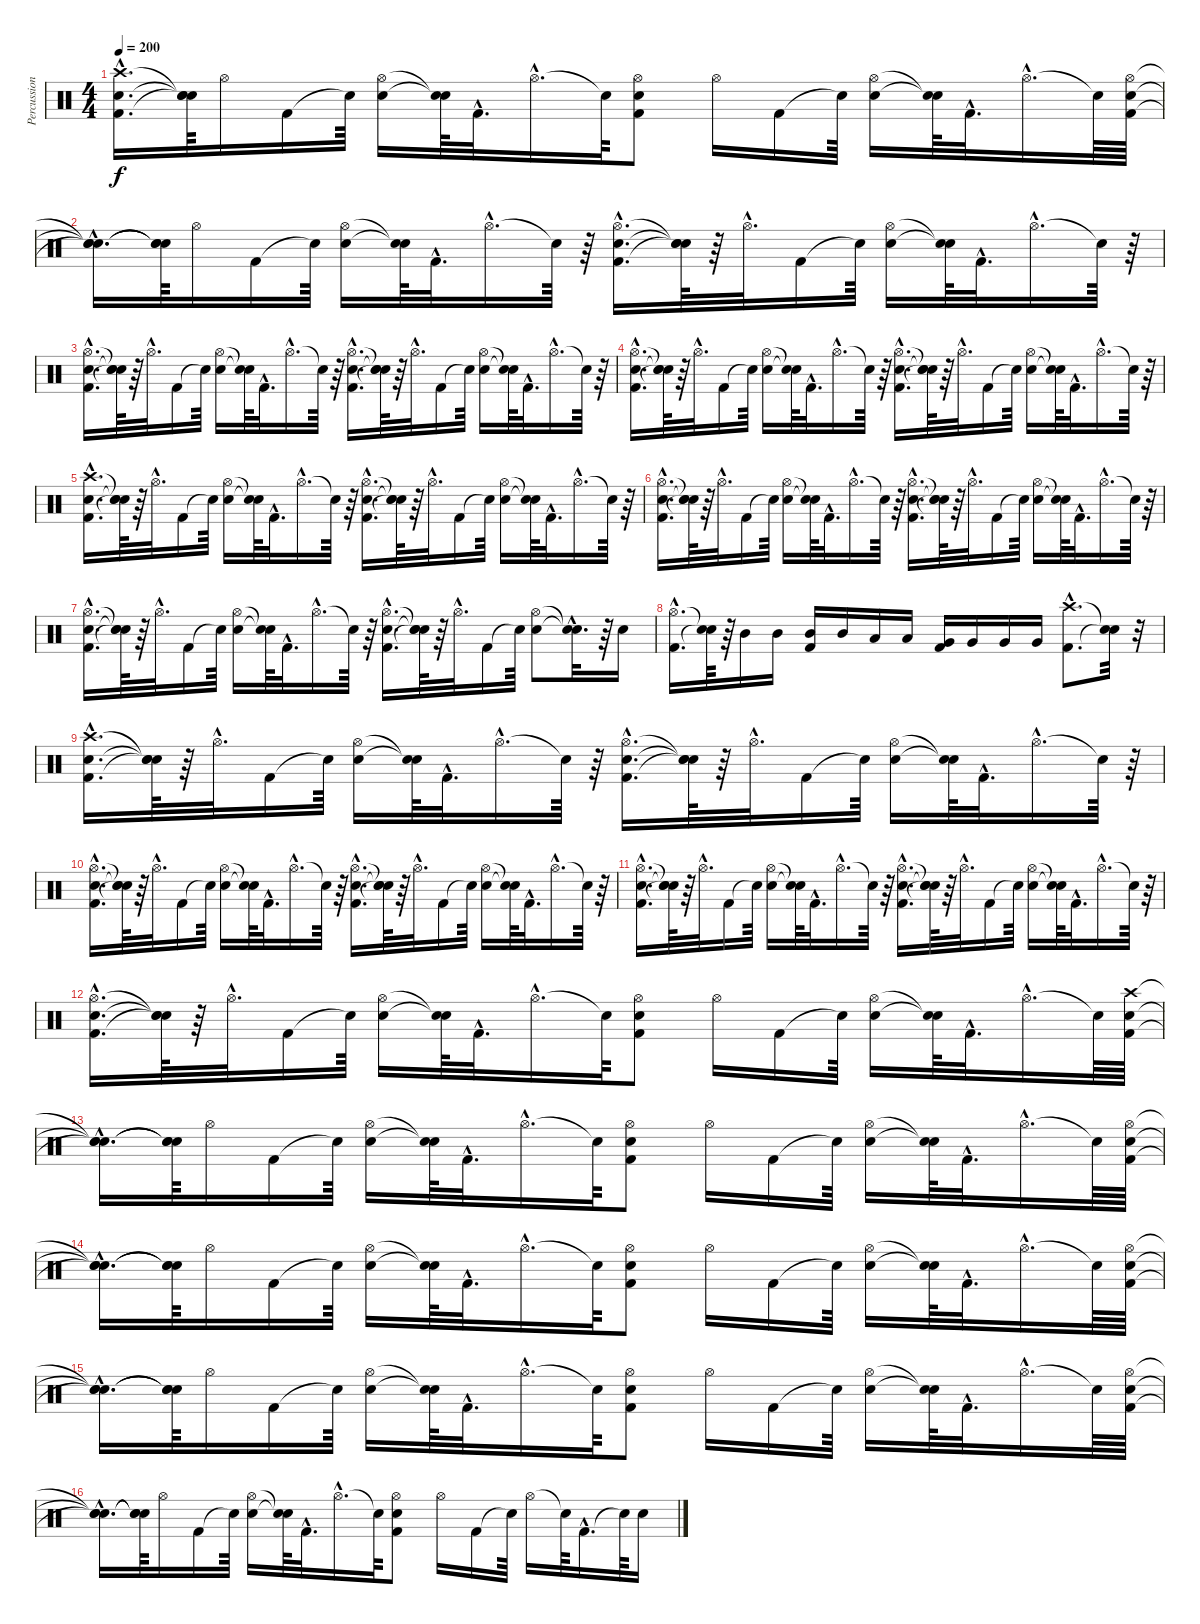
\track ("Percussion" "Percussion") {instrument percussion}
\staff {score}
\articulation defaults
\ts (4 4)
\tempo 200
\clef neutral
\ks c
("Electric Snare (hit)"{hac} "Crash high (hit)"{hac} "Kick (hit) 2"{hac}).16{d dy f volume 4} ("Snare (hit)"{t} "Snare (hit)"{t} "Snare (hit)"{t}).64 "Hi-Hat (open)".16 "Kick (hit) 2".16 "Snare (hit)"{t}.64 ("Electric Snare (hit)" "Hi-Hat (open)").16 ("Snare (hit)"{t} "Snare (hit)"{t}).64 "Kick (hit) 2"{hac}.32{d} "Hi-Hat (open)"{hac}.16{d} "Snare (hit)"{t}.64 ("Electric Snare (hit)" "Hi-Hat (open)" "Kick (hit) 2").8 "Hi-Hat (open)".16 "Kick (hit) 2".16 "Snare (hit)"{t}.64 ("Electric Snare (hit)" "Hi-Hat (open)").16 ("Snare (hit)"{t} "Snare (hit)"{t}).64 "Kick (hit) 2"{hac}.32{d} "Hi-Hat (open)"{hac}.16{d} "Snare (hit)"{t}.64 ("Electric Snare (hit)" "Hi-Hat (open)" "Kick (hit) 2").64 |
("Snare (hit)"{hac t} "Snare (hit)"{hac t} "Snare (hit)"{hac t}).16{d} ("Snare (hit)"{t} "Snare (hit)"{t} "Snare (hit)"{t}).64 "Hi-Hat (open)".16 "Kick (hit) 2".16 "Snare (hit)"{t}.64 ("Electric Snare (hit)" "Hi-Hat (open)").16 ("Snare (hit)"{t} "Snare (hit)"{t}).64 "Kick (hit) 2"{hac}.32{d} "Hi-Hat (open)"{hac}.16{d} "Snare (hit)"{t}.64 r.64 ("Electric Snare (hit)"{hac} "Hi-Hat (open)"{hac} "Kick (hit) 2"{hac}).16{d} ("Snare (hit)"{t} "Snare (hit)"{t} "Snare (hit)"{t}).64 r.64 "Hi-Hat (open)"{hac}.32{d} "Kick (hit) 2".16 "Snare (hit)"{t}.64 ("Electric Snare (hit)" "Hi-Hat (open)").16 ("Snare (hit)"{t} "Snare (hit)"{t}).64 "Kick (hit) 2"{hac}.32{d} "Hi-Hat (open)"{hac}.16{d} "Snare (hit)"{t}.64 r.64 |
("Electric Snare (hit)"{hac} "Hi-Hat (open)"{hac} "Kick (hit) 2"{hac}).16{d volume 8} ("Snare (hit)"{t} "Snare (hit)"{t} "Snare (hit)"{t}).64 r.64 "Hi-Hat (open)"{hac}.32{d} "Kick (hit) 2".16 "Snare (hit)"{t}.64 ("Electric Snare (hit)" "Hi-Hat (open)").16 ("Snare (hit)"{t} "Snare (hit)"{t}).64 "Kick (hit) 2"{hac}.32{d} "Hi-Hat (open)"{hac}.16{d} "Snare (hit)"{t}.64 r.64 ("Electric Snare (hit)"{hac} "Hi-Hat (open)"{hac} "Kick (hit) 2"{hac}).16{d} ("Snare (hit)"{t} "Snare (hit)"{t} "Snare (hit)"{t}).64 r.64 "Hi-Hat (open)"{hac}.32{d} "Kick (hit) 2".16 "Snare (hit)"{t}.64 ("Electric Snare (hit)" "Hi-Hat (open)").16 ("Snare (hit)"{t} "Snare (hit)"{t}).64 "Kick (hit) 2"{hac}.32{d} "Hi-Hat (open)"{hac}.16{d} "Snare (hit)"{t}.64 r.64 |
("Electric Snare (hit)"{hac} "Hi-Hat (open)"{hac} "Kick (hit) 2"{hac}).16{d} ("Snare (hit)"{t} "Snare (hit)"{t} "Snare (hit)"{t}).64 r.64 "Hi-Hat (open)"{hac}.32{d} "Kick (hit) 2".16 "Snare (hit)"{t}.64 ("Electric Snare (hit)" "Hi-Hat (open)").16 ("Snare (hit)"{t} "Snare (hit)"{t}).64 "Kick (hit) 2"{hac}.32{d} "Hi-Hat (open)"{hac}.16{d} "Snare (hit)"{t}.64 r.64 ("Electric Snare (hit)"{hac} "Hi-Hat (open)"{hac} "Kick (hit) 2"{hac}).16{d} ("Snare (hit)"{t} "Snare (hit)"{t} "Snare (hit)"{t}).64 r.64 "Hi-Hat (open)"{hac}.32{d} "Kick (hit) 2".16 "Snare (hit)"{t}.64 ("Electric Snare (hit)" "Hi-Hat (open)").16 ("Snare (hit)"{t} "Snare (hit)"{t}).64 "Kick (hit) 2"{hac}.32{d} "Hi-Hat (open)"{hac}.16{d} "Snare (hit)"{t}.64 r.64 |
("Electric Snare (hit)"{hac} "Crash high (hit)"{hac} "Kick (hit) 2"{hac}).16{d volume 12} ("Snare (hit)"{t} "Snare (hit)"{t} "Snare (hit)"{t}).64 r.64 "Hi-Hat (open)"{hac}.32{d} "Kick (hit) 2".16 "Snare (hit)"{t}.64 ("Electric Snare (hit)" "Hi-Hat (open)").16 ("Snare (hit)"{t} "Snare (hit)"{t}).64 "Kick (hit) 2"{hac}.32{d} "Hi-Hat (open)"{hac}.16{d} "Snare (hit)"{t}.64 r.64 ("Electric Snare (hit)"{hac} "Hi-Hat (open)"{hac} "Kick (hit) 2"{hac}).16{d} ("Snare (hit)"{t} "Snare (hit)"{t} "Snare (hit)"{t}).64 r.64 "Hi-Hat (open)"{hac}.32{d} "Kick (hit) 2".16 "Snare (hit)"{t}.64 ("Electric Snare (hit)" "Hi-Hat (open)").16 ("Snare (hit)"{t} "Snare (hit)"{t}).64 "Kick (hit) 2"{hac}.32{d} "Hi-Hat (open)"{hac}.16{d} "Snare (hit)"{t}.64 r.64 |
("Electric Snare (hit)"{hac} "Hi-Hat (open)"{hac} "Kick (hit) 2"{hac}).16{d} ("Snare (hit)"{t} "Snare (hit)"{t} "Snare (hit)"{t}).64 r.64 "Hi-Hat (open)"{hac}.32{d} "Kick (hit) 2".16 "Snare (hit)"{t}.64 ("Electric Snare (hit)" "Hi-Hat (open)").16 ("Snare (hit)"{t} "Snare (hit)"{t}).64 "Kick (hit) 2"{hac}.32{d} "Hi-Hat (open)"{hac}.16{d} "Snare (hit)"{t}.64 r.64 ("Electric Snare (hit)"{hac} "Hi-Hat (open)"{hac} "Kick (hit) 2"{hac}).16{d} ("Snare (hit)"{t} "Snare (hit)"{t} "Snare (hit)"{t}).64 r.64 "Hi-Hat (open)"{hac}.32{d} "Kick (hit) 2".16 "Snare (hit)"{t}.64 ("Electric Snare (hit)" "Hi-Hat (open)").16 ("Snare (hit)"{t} "Snare (hit)"{t}).64 "Kick (hit) 2"{hac}.32{d} "Hi-Hat (open)"{hac}.16{d} "Snare (hit)"{t}.64 r.64 |
("Electric Snare (hit)"{hac} "Hi-Hat (open)"{hac} "Kick (hit) 2"{hac}).16{d} ("Snare (hit)"{t} "Snare (hit)"{t} "Snare (hit)"{t}).64 r.64 "Hi-Hat (open)"{hac}.32{d} "Kick (hit) 2".16 "Snare (hit)"{t}.64 ("Electric Snare (hit)" "Hi-Hat (open)").16 ("Snare (hit)"{t} "Snare (hit)"{t}).64 "Kick (hit) 2"{hac}.32{d} "Hi-Hat (open)"{hac}.16{d} "Snare (hit)"{t}.64 r.64 ("Electric Snare (hit)"{hac} "Hi-Hat (open)"{hac} "Kick (hit) 2"{hac}).16{d} ("Snare (hit)"{t} "Snare (hit)"{t} "Snare (hit)"{t}).64 r.64 "Hi-Hat (open)"{hac}.32{d} "Kick (hit) 2".16 "Snare (hit)"{t}.64 ("Electric Snare (hit)" "Hi-Hat (open)").8 ("Snare (hit)"{hac t} "Snare (hit)"{hac t}).32{d} r.64 "Electric Snare (hit)".16 |
("Kick (hit) 2"{hac} "Hi-Hat (open)"{hac}).16{d} ("Snare (hit)"{t} "Snare (hit)"{t}).64 r.64 "Mid Tom (hit)".16 "Mid Tom (hit)".16 ("Kick (hit) 2" "Mid Tom (hit)").16 "Mid Tom (hit)".16 "Low Tom (hit)".16 "Low Tom (hit)".16 ("Kick (hit) 2" "Very Low Tom (hit)").16 "Very Low Tom (hit)".16 "Very Low Tom (hit)".16 "Very Low Tom (hit)".16 ("Kick (hit) 2"{hac} "Crash high (hit)"{hac}).8{d} ("Snare (hit)"{t} "Snare (hit)"{t}).32 r.32 |
("Electric Snare (hit)"{hac} "Crash high (hit)"{hac} "Kick (hit) 2"{hac}).16{d} ("Snare (hit)"{t} "Snare (hit)"{t} "Snare (hit)"{t}).64 r.64 "Hi-Hat (open)"{hac}.32{d} "Kick (hit) 2".16 "Snare (hit)"{t}.64 ("Electric Snare (hit)" "Hi-Hat (open)").16 ("Snare (hit)"{t} "Snare (hit)"{t}).64 "Kick (hit) 2"{hac}.32{d} "Hi-Hat (open)"{hac}.16{d} "Snare (hit)"{t}.64 r.64 ("Electric Snare (hit)"{hac} "Hi-Hat (open)"{hac} "Kick (hit) 2"{hac}).16{d} ("Snare (hit)"{t} "Snare (hit)"{t} "Snare (hit)"{t}).64 r.64 "Hi-Hat (open)"{hac}.32{d} "Kick (hit) 2".16 "Snare (hit)"{t}.64 ("Electric Snare (hit)" "Hi-Hat (open)").16 ("Snare (hit)"{t} "Snare (hit)"{t}).64 "Kick (hit) 2"{hac}.32{d} "Hi-Hat (open)"{hac}.16{d} "Snare (hit)"{t}.64 r.64 |
("Electric Snare (hit)"{hac} "Hi-Hat (open)"{hac} "Kick (hit) 2"{hac}).16{d} ("Snare (hit)"{t} "Snare (hit)"{t} "Snare (hit)"{t}).64 r.64 "Hi-Hat (open)"{hac}.32{d} "Kick (hit) 2".16 "Snare (hit)"{t}.64 ("Electric Snare (hit)" "Hi-Hat (open)").16 ("Snare (hit)"{t} "Snare (hit)"{t}).64 "Kick (hit) 2"{hac}.32{d} "Hi-Hat (open)"{hac}.16{d} "Snare (hit)"{t}.64 r.64 ("Electric Snare (hit)"{hac} "Hi-Hat (open)"{hac} "Kick (hit) 2"{hac}).16{d} ("Snare (hit)"{t} "Snare (hit)"{t} "Snare (hit)"{t}).64 r.64 "Hi-Hat (open)"{hac}.32{d} "Kick (hit) 2".16 "Snare (hit)"{t}.64 ("Electric Snare (hit)" "Hi-Hat (open)").16 ("Snare (hit)"{t} "Snare (hit)"{t}).64 "Kick (hit) 2"{hac}.32{d} "Hi-Hat (open)"{hac}.16{d} "Snare (hit)"{t}.64 r.64 |
("Electric Snare (hit)"{hac} "Hi-Hat (open)"{hac} "Kick (hit) 2"{hac}).16{d} ("Snare (hit)"{t} "Snare (hit)"{t} "Snare (hit)"{t}).64 r.64 "Hi-Hat (open)"{hac}.32{d} "Kick (hit) 2".16 "Snare (hit)"{t}.64 ("Electric Snare (hit)" "Hi-Hat (open)").16 ("Snare (hit)"{t} "Snare (hit)"{t}).64 "Kick (hit) 2"{hac}.32{d} "Hi-Hat (open)"{hac}.16{d} "Snare (hit)"{t}.64 r.64 ("Electric Snare (hit)"{hac} "Hi-Hat (open)"{hac} "Kick (hit) 2"{hac}).16{d} ("Snare (hit)"{t} "Snare (hit)"{t} "Snare (hit)"{t}).64 r.64 "Hi-Hat (open)"{hac}.32{d} "Kick (hit) 2".16 "Snare (hit)"{t}.64 ("Electric Snare (hit)" "Hi-Hat (open)").16 ("Snare (hit)"{t} "Snare (hit)"{t}).64 "Kick (hit) 2"{hac}.32{d} "Hi-Hat (open)"{hac}.16{d} "Snare (hit)"{t}.64 r.64 |
("Electric Snare (hit)"{hac} "Hi-Hat (open)"{hac} "Kick (hit) 2"{hac}).16{d} ("Snare (hit)"{t} "Snare (hit)"{t} "Snare (hit)"{t}).64 r.64 "Hi-Hat (open)"{hac}.32{d} "Kick (hit) 2".16 "Snare (hit)"{t}.64 ("Electric Snare (hit)" "Hi-Hat (open)").16 ("Snare (hit)"{t} "Snare (hit)"{t}).64 "Kick (hit) 2"{hac}.32{d} "Hi-Hat (open)"{hac}.16{d} "Snare (hit)"{t}.64 ("Electric Snare (hit)" "Hi-Hat (open)" "Kick (hit) 2").8 "Hi-Hat (open)".16 "Kick (hit) 2".16 "Snare (hit)"{t}.64 ("Electric Snare (hit)" "Hi-Hat (open)").16 ("Snare (hit)"{t} "Snare (hit)"{t}).64 "Kick (hit) 2"{hac}.32{d} "Hi-Hat (open)"{hac}.16{d} "Snare (hit)"{t}.64 ("Electric Snare (hit)" "Crash high (hit)" "Kick (hit) 2").64 |
("Snare (hit)"{hac t} "Snare (hit)"{hac t} "Snare (hit)"{hac t}).16{d} ("Snare (hit)"{t} "Snare (hit)"{t} "Snare (hit)"{t}).64 "Hi-Hat (open)".16 "Kick (hit) 2".16 "Snare (hit)"{t}.64 ("Electric Snare (hit)" "Hi-Hat (open)").16 ("Snare (hit)"{t} "Snare (hit)"{t}).64 "Kick (hit) 2"{hac}.32{d} "Hi-Hat (open)"{hac}.16{d} "Snare (hit)"{t}.64 ("Electric Snare (hit)" "Hi-Hat (open)" "Kick (hit) 2").8 "Hi-Hat (open)".16 "Kick (hit) 2".16 "Snare (hit)"{t}.64 ("Electric Snare (hit)" "Hi-Hat (open)").16 ("Snare (hit)"{t} "Snare (hit)"{t}).64 "Kick (hit) 2"{hac}.32{d} "Hi-Hat (open)"{hac}.16{d} "Snare (hit)"{t}.64 ("Electric Snare (hit)" "Hi-Hat (open)" "Kick (hit) 2").64 |
("Snare (hit)"{hac t} "Snare (hit)"{hac t} "Snare (hit)"{hac t}).16{d} ("Snare (hit)"{t} "Snare (hit)"{t} "Snare (hit)"{t}).64 "Hi-Hat (open)".16 "Kick (hit) 2".16 "Snare (hit)"{t}.64 ("Electric Snare (hit)" "Hi-Hat (open)").16 ("Snare (hit)"{t} "Snare (hit)"{t}).64 "Kick (hit) 2"{hac}.32{d} "Hi-Hat (open)"{hac}.16{d} "Snare (hit)"{t}.64 ("Electric Snare (hit)" "Hi-Hat (open)" "Kick (hit) 2").8 "Hi-Hat (open)".16 "Kick (hit) 2".16 "Snare (hit)"{t}.64 ("Electric Snare (hit)" "Hi-Hat (open)").16 ("Snare (hit)"{t} "Snare (hit)"{t}).64 "Kick (hit) 2"{hac}.32{d} "Hi-Hat (open)"{hac}.16{d} "Snare (hit)"{t}.64 ("Electric Snare (hit)" "Hi-Hat (open)" "Kick (hit) 2").64 |
("Snare (hit)"{hac t} "Snare (hit)"{hac t} "Snare (hit)"{hac t}).16{d} ("Snare (hit)"{t} "Snare (hit)"{t} "Snare (hit)"{t}).64 "Hi-Hat (open)".16 "Kick (hit) 2".16 "Snare (hit)"{t}.64 ("Electric Snare (hit)" "Hi-Hat (open)").16 ("Snare (hit)"{t} "Snare (hit)"{t}).64 "Kick (hit) 2"{hac}.32{d} "Hi-Hat (open)"{hac}.16{d} "Snare (hit)"{t}.64 ("Electric Snare (hit)" "Hi-Hat (open)" "Kick (hit) 2").8 "Hi-Hat (open)".16 "Kick (hit) 2".16 "Snare (hit)"{t}.64 ("Electric Snare (hit)" "Hi-Hat (open)").16 ("Snare (hit)"{t} "Snare (hit)"{t}).64 "Kick (hit) 2"{hac}.32{d} "Hi-Hat (open)"{hac}.16{d} "Snare (hit)"{t}.64 ("Electric Snare (hit)" "Hi-Hat (open)" "Kick (hit) 2").64 |
("Snare (hit)"{hac t} "Snare (hit)"{hac t} "Snare (hit)"{hac t}).16{d} ("Snare (hit)"{t} "Snare (hit)"{t} "Snare (hit)"{t}).64 "Hi-Hat (open)".16 "Kick (hit) 2".16 "Snare (hit)"{t}.64 ("Electric Snare (hit)" "Hi-Hat (open)").16 ("Snare (hit)"{t} "Snare (hit)"{t}).64 "Kick (hit) 2"{hac}.32{d} "Hi-Hat (open)"{hac}.16{d} "Snare (hit)"{t}.64 ("Electric Snare (hit)" "Hi-Hat (open)" "Kick (hit) 2").8 "Hi-Hat (open)".16 "Kick (hit) 2".16 "Snare (hit)"{t}.64 "Hi-Hat (open)".16 "Snare (hit)"{t}.64 "Kick (hit) 2"{hac}.16{d} "Snare (hit)"{t}.64 "Electric Snare (hit)".16
